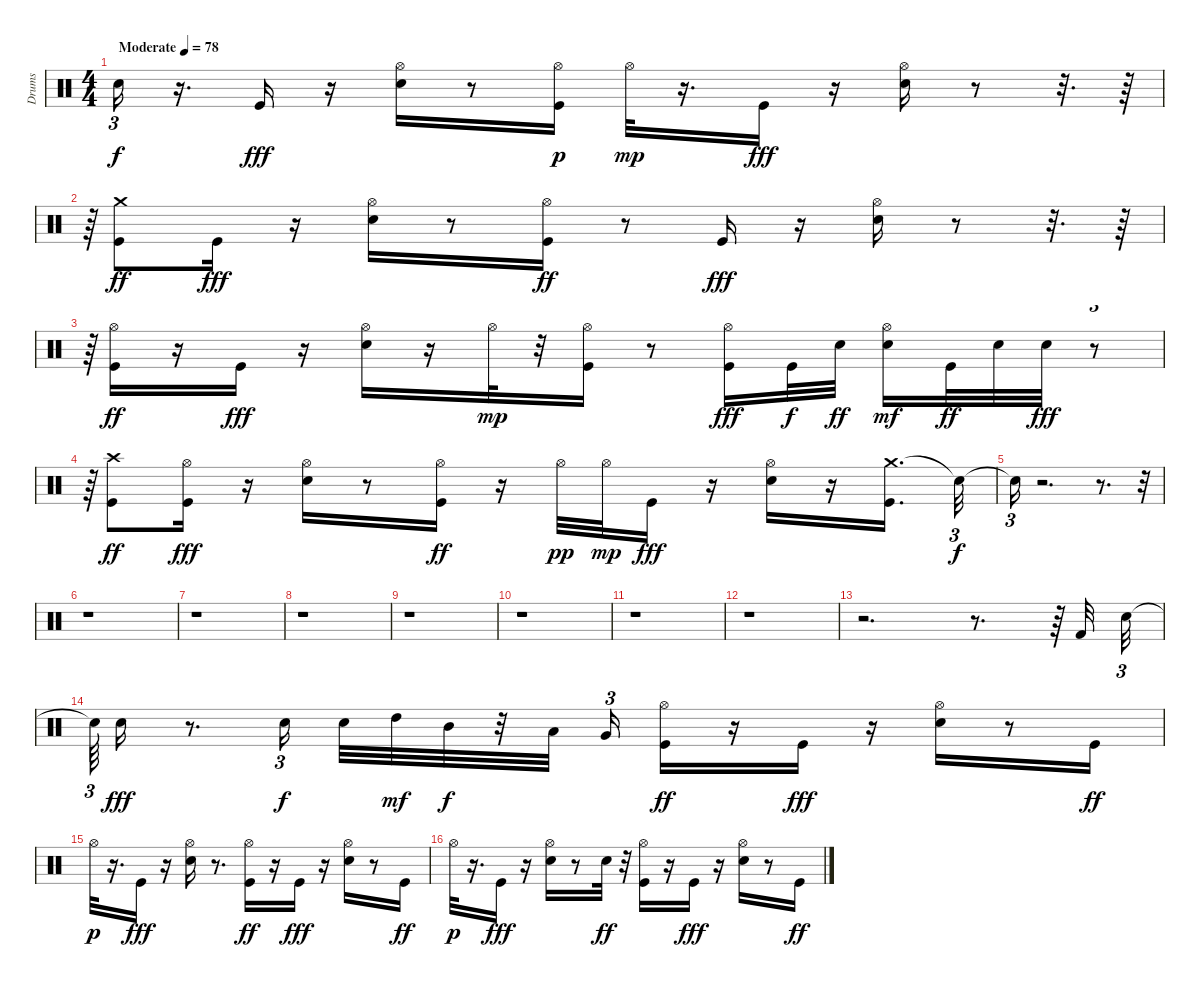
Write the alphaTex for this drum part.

\track ("Drums" "Drums") {instrument percussion}
\staff {score}
\articulation defaults
\ts (4 4)
\tempo (78 "Moderate")
\clef neutral
\ks c "Snare (hit)".16{tu (3 2) dy f}
r.16{d} "Kick (hit)".16{dy fff} r.16 ("Hi-Hat (open)" "Electric Snare (hit)").16 r.8 ("Kick (hit)" "Hi-Hat (open)").16{dy p} "Hi-Hat (open)".32{dy mp} r.16{d} "Kick (hit)".16{dy fff} r.16 ("Hi-Hat (open)" "Electric Snare (hit)").16 r.8 r.32{d} r.64 |
r.64{tu (3 2)} ("Crash medium (hit)" "Kick (hit)").8{dy ff} "Kick (hit)".16{dy fff} r.16 ("Hi-Hat (open)" "Electric Snare (hit)").16 r.8 ("Hi-Hat (open)" "Kick (hit)").16{dy ff} r.8 "Kick (hit)".16{dy fff} r.16 ("Hi-Hat (open)" "Electric Snare (hit)").16 r.8 r.32{d} r.64 |
r.64{tu (3 2)} ("Hi-Hat (open)" "Kick (hit)").16{dy ff} r.16 "Kick (hit)".16{dy fff} r.16 ("Hi-Hat (open)" "Electric Snare (hit)").16 r.16 "Hi-Hat (open)".32{dy mp} r.32 ("Kick (hit)" "Hi-Hat (open)").16 r.8 ("Hi-Hat (open)" "Kick (hit)").16{dy fff} "Kick (hit)".32{dy f} "Electric Snare (hit)".32{dy ff} ("Electric Snare (hit)" "Hi-Hat (open)").16{dy mf} "Kick (hit)".32{dy ff} "Electric Snare (hit)".32 "Electric Snare (hit)".32{dy fff} r.8{tu (3 2)} |
r.64{tu (3 2)} ("Crash high (hit)" "Kick (hit)").8{dy ff} ("Hi-Hat (open)" "Kick (hit)").16{dy fff} r.16 ("Hi-Hat (open)" "Electric Snare (hit)").16 r.8 ("Hi-Hat (open)" "Kick (hit)").16{dy ff} r.16 "Hi-Hat (open)".32{dy pp} "Hi-Hat (open)".32{dy mp} "Kick (hit)".16{dy fff} r.16 ("Hi-Hat (open)" "Electric Snare (hit)").16 r.16 ("Crash medium (hit)" "Kick (hit)").16{d} "Snare (hit)"{t}.32{tu (3 2) dy f} |
"Snare (hit)"{t}.16{tu (3 2)} r.2{d} r.8{d} r.32{tu (3 2)} |
r.1 |
r.1 |
r.1 |
r.1 |
r.1 |
r.1 |
r.1 |
r.2{d} r.8{d} r.64{tu (3 2)} "Kick (hit) 2".32 "Electric Snare (hit)".32{tu (3 2)} |
"Snare (hit)"{t}.64{tu (3 2)} "Electric Snare (hit)".16{dy fff} r.8{d} "Electric Snare (hit)".16{tu (3 2) dy f} "Electric Snare (hit)".32 "High Tom (hit)".32{dy mf} "Mid Tom (hit)".32{dy f} r.32 "Low Tom (hit)".32 "Very Low Tom (hit)".16{tu (3 2)} ("Hi-Hat (open)" "Kick (hit)").16{dy ff} r.16 "Kick (hit)".16{dy fff} r.16 ("Hi-Hat (open)" "Electric Snare (hit)").16 r.8 "Kick (hit)".16{dy ff} |
"Hi-Hat (open)".32{dy p} r.16{d} "Kick (hit)".16{dy fff} r.16 ("Hi-Hat (open)" "Electric Snare (hit)").16 r.8{d} ("Hi-Hat (open)" "Kick (hit)").16{dy ff} r.16 "Kick (hit)".16{dy fff} r.16 ("Hi-Hat (open)" "Electric Snare (hit)").16 r.8 "Kick (hit)".16{dy ff} |
"Hi-Hat (open)".32{dy p} r.16{d} "Kick (hit)".16{dy fff} r.16 ("Hi-Hat (open)" "Electric Snare (hit)").16 r.8 "Electric Snare (hit)".32{dy ff} r.32 ("Hi-Hat (open)" "Kick (hit)").16 r.16 "Kick (hit)".16{dy fff} r.16 ("Hi-Hat (open)" "Electric Snare (hit)").16 r.8 "Kick (hit)".16{dy ff}
